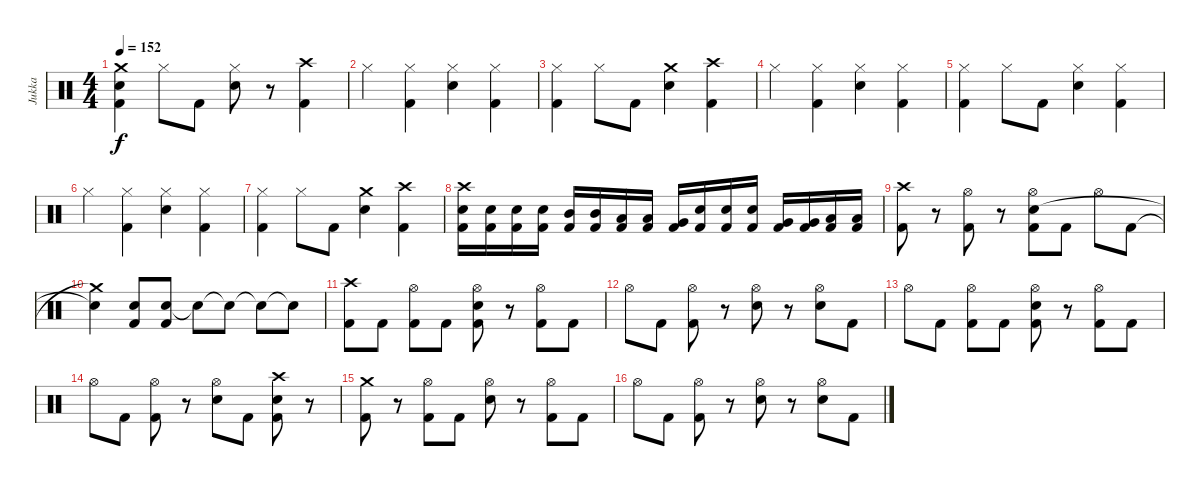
\track ("Jukka" "Jukka") {instrument percussion}
\staff {score}
\articulation defaults
\ts (4 4)
\tempo 152
\clef neutral
\ks c
("Crash medium (hit)" "Electric Snare (hit)" "Kick (hit) 2").4{dy f} "Hi-Hat (closed)".8 "Kick (hit) 2".8 ("Hi-Hat (closed)" "Electric Snare (hit)").8 r.8 ("Crash high (hit)" "Kick (hit) 2").4 |
"Hi-Hat (closed)".4 ("Hi-Hat (closed)" "Kick (hit) 2").4 ("Hi-Hat (closed)" "Electric Snare (hit)").4 ("Hi-Hat (closed)" "Kick (hit) 2").4 |
("Hi-Hat (closed)" "Kick (hit) 2").4 "Hi-Hat (closed)".8 "Kick (hit) 2".8 ("Crash medium (hit)" "Electric Snare (hit)").4 ("Crash high (hit)" "Kick (hit) 2").4 |
"Hi-Hat (closed)".4 ("Hi-Hat (closed)" "Kick (hit) 2").4 ("Hi-Hat (closed)" "Electric Snare (hit)").4 ("Hi-Hat (closed)" "Kick (hit) 2").4 |
("Hi-Hat (closed)" "Kick (hit) 2").4 "Hi-Hat (closed)".8 "Kick (hit) 2".8 ("Hi-Hat (closed)" "Electric Snare (hit)").4 ("Hi-Hat (closed)" "Kick (hit) 2").4 |
"Hi-Hat (closed)".4 ("Hi-Hat (closed)" "Kick (hit) 2").4 ("Hi-Hat (closed)" "Electric Snare (hit)").4 ("Hi-Hat (closed)" "Kick (hit) 2").4 |
("Hi-Hat (closed)" "Kick (hit) 2").4 "Hi-Hat (closed)".8 "Kick (hit) 2".8 ("Crash medium (hit)" "Electric Snare (hit)").4 ("Crash high (hit)" "Kick (hit) 2").4 |
("Crash high (hit)" "Electric Snare (hit)" "Kick (hit) 2").16 ("Electric Snare (hit)" "Kick (hit) 2").16 ("Electric Snare (hit)" "Kick (hit) 2").16 ("Electric Snare (hit)" "Kick (hit) 2").16 ("Mid Tom (hit)" "Kick (hit) 2").16 ("Mid Tom (hit)" "Kick (hit) 2").16 ("Low Tom (hit)" "Kick (hit) 2").16 ("Low Tom (hit)" "Kick (hit) 2").16 ("Very Low Tom (hit)" "Kick (hit) 2").16 ("Electric Snare (hit)" "Kick (hit) 2").16 ("Electric Snare (hit)" "Kick (hit) 2").16 ("Electric Snare (hit)" "Kick (hit) 2").16 ("Very Low Tom (hit)" "Kick (hit) 2").16 ("Very Low Tom (hit)" "Kick (hit) 2").16 ("Low Floor Tom (hit)" "Kick (hit) 2").16 ("Low Floor Tom (hit)" "Kick (hit) 2").16 |
("Crash high (hit)" "Kick (hit) 2").8 r.8 ("Hi-Hat (open)" "Kick (hit) 2").8 r.8 ("Hi-Hat (open)" "Electric Snare (hit)" "Kick (hit) 2").8 "Kick (hit) 2".8 "Hi-Hat (open)".8 "Kick (hit) 2".8 |
("Crash medium (hit)"{t} "Snare (hit)"{t}).4 ("Electric Snare (hit)" "Kick (hit) 2").8 ("Electric Snare (hit)" "Kick (hit) 2").8 "Snare (hit)"{t}.8 "Snare (hit)"{t}.8 "Snare (hit)"{t}.8 "Snare (hit)"{t}.8 |
("Crash high (hit)" "Kick (hit) 2").8 "Kick (hit) 2".8 ("Hi-Hat (open)" "Kick (hit) 2").8 "Kick (hit) 2".8 ("Hi-Hat (open)" "Electric Snare (hit)" "Kick (hit) 2").8 r.8 ("Hi-Hat (open)" "Kick (hit) 2").8 "Kick (hit) 2".8 |
"Hi-Hat (open)".8 "Kick (hit) 2".8 ("Hi-Hat (open)" "Kick (hit) 2").8 r.8 ("Hi-Hat (open)" "Electric Snare (hit)").8 r.8 ("Hi-Hat (open)" "Electric Snare (hit)").8 "Kick (hit) 2".8 |
"Hi-Hat (open)".8 "Kick (hit) 2".8 ("Hi-Hat (open)" "Kick (hit) 2").8 "Kick (hit) 2".8 ("Hi-Hat (open)" "Electric Snare (hit)" "Kick (hit) 2").8 r.8 ("Hi-Hat (open)" "Kick (hit) 2").8 "Kick (hit) 2".8 |
"Hi-Hat (open)".8 "Kick (hit) 2".8 ("Hi-Hat (open)" "Kick (hit) 2").8 r.8 ("Hi-Hat (open)" "Electric Snare (hit)").8 "Kick (hit) 2".8 ("Crash high (hit)" "Electric Snare (hit)" "Kick (hit) 2").8 r.8 |
("Crash medium (hit)" "Kick (hit) 2").8 r.8 ("Hi-Hat (open)" "Kick (hit) 2").8 "Kick (hit) 2".8 ("Hi-Hat (open)" "Electric Snare (hit)").8 r.8 ("Hi-Hat (open)" "Kick (hit) 2").8 "Kick (hit) 2".8 |
"Hi-Hat (open)".8 "Kick (hit) 2".8 ("Hi-Hat (open)" "Kick (hit) 2").8 r.8 ("Hi-Hat (open)" "Electric Snare (hit)").8 r.8 ("Hi-Hat (open)" "Electric Snare (hit)").8 "Kick (hit) 2".8
